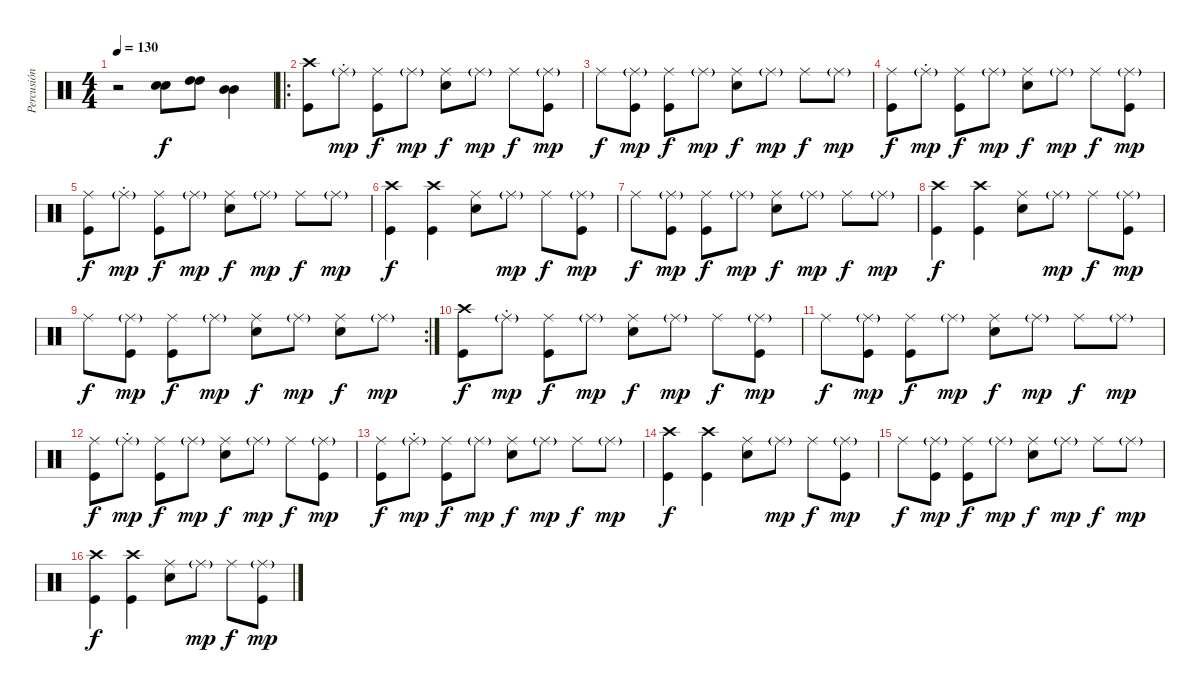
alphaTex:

\track ("Percusión" "Percusión") {instrument percussion}
\staff {score}
\articulation defaults
\ts (4 4)
\tempo 130
\clef neutral
\ks c
r.2{dy f} ("Electric Snare (hit)" "Electric Snare (hit)").8 ("High Tom (hit)" "High Tom (hit)").8 ("Mid Tom (hit)" "Mid Tom (hit)").4 |
\ro
("Crash high (hit)" "Kick (hit)").8 "Ride (middle)"{g st}.8{dy mp} ("Ride (middle)" "Kick (hit)").8{dy f} "Ride (middle)"{g}.8{dy mp} ("Ride (middle)" "Electric Snare (hit)").8{dy f} "Ride (middle)"{g}.8{dy mp} "Ride (middle)".8{dy f} ("Ride (middle)"{g} "Kick (hit)").8{dy mp} |
"Ride (middle)".8{dy f} ("Ride (middle)"{g} "Kick (hit)").8{dy mp} ("Ride (middle)" "Kick (hit)").8{dy f} "Ride (middle)"{g}.8{dy mp} ("Ride (middle)" "Electric Snare (hit)").8{dy f} "Ride (middle)"{g}.8{dy mp} "Ride (middle)".8{dy f} "Ride (middle)"{g}.8{dy mp} |
("Ride (middle)" "Kick (hit)").8{dy f} "Ride (middle)"{g st}.8{dy mp} ("Ride (middle)" "Kick (hit)").8{dy f} "Ride (middle)"{g}.8{dy mp} ("Ride (middle)" "Electric Snare (hit)").8{dy f} "Ride (middle)"{g}.8{dy mp} "Ride (middle)".8{dy f} ("Ride (middle)"{g} "Kick (hit)").8{dy mp} |
("Ride (middle)" "Kick (hit)").8{dy f} "Ride (middle)"{g st}.8{dy mp} ("Ride (middle)" "Kick (hit)").8{dy f} "Ride (middle)"{g}.8{dy mp} ("Ride (middle)" "Electric Snare (hit)").8{dy f} "Ride (middle)"{g}.8{dy mp} "Ride (middle)".8{dy f} "Ride (middle)"{g}.8{dy mp} |
("Crash high (hit)" "Kick (hit)").4{dy f} ("Crash high (hit)" "Kick (hit)").4 ("Ride (middle)" "Electric Snare (hit)").8 "Ride (middle)"{g}.8{dy mp} "Ride (middle)".8{dy f} ("Ride (middle)"{g} "Kick (hit)").8{dy mp} |
"Ride (middle)".8{dy f} ("Ride (middle)"{g} "Kick (hit)").8{dy mp} ("Ride (middle)" "Kick (hit)").8{dy f} "Ride (middle)"{g}.8{dy mp} ("Ride (middle)" "Electric Snare (hit)").8{dy f} "Ride (middle)"{g}.8{dy mp} "Ride (middle)".8{dy f} "Ride (middle)"{g}.8{dy mp} |
("Crash high (hit)" "Kick (hit)").4{dy f} ("Crash high (hit)" "Kick (hit)").4 ("Ride (middle)" "Electric Snare (hit)").8 "Ride (middle)"{g}.8{dy mp} "Ride (middle)".8{dy f} ("Ride (middle)"{g} "Kick (hit)").8{dy mp} |
\rc 2 "Ride (middle)".8{dy f}
("Ride (middle)"{g} "Kick (hit)").8{dy mp} ("Ride (middle)" "Kick (hit)").8{dy f} "Ride (middle)"{g}.8{dy mp} ("Ride (middle)" "Electric Snare (hit)").8{dy f} "Ride (middle)"{g}.8{dy mp} ("Ride (middle)" "Electric Snare (hit)").8{dy f} "Ride (middle)"{g}.8{dy mp} |
("Crash high (hit)" "Kick (hit)").8{dy f} "Ride (middle)"{g st}.8{dy mp} ("Ride (middle)" "Kick (hit)").8{dy f} "Ride (middle)"{g}.8{dy mp} ("Ride (middle)" "Electric Snare (hit)").8{dy f} "Ride (middle)"{g}.8{dy mp} "Ride (middle)".8{dy f} ("Ride (middle)"{g} "Kick (hit)").8{dy mp} |
"Ride (middle)".8{dy f} ("Ride (middle)"{g} "Kick (hit)").8{dy mp} ("Ride (middle)" "Kick (hit)").8{dy f} "Ride (middle)"{g}.8{dy mp} ("Ride (middle)" "Electric Snare (hit)").8{dy f} "Ride (middle)"{g}.8{dy mp} "Ride (middle)".8{dy f} "Ride (middle)"{g}.8{dy mp} |
("Ride (middle)" "Kick (hit)").8{dy f} "Ride (middle)"{g st}.8{dy mp} ("Ride (middle)" "Kick (hit)").8{dy f} "Ride (middle)"{g}.8{dy mp} ("Ride (middle)" "Electric Snare (hit)").8{dy f} "Ride (middle)"{g}.8{dy mp} "Ride (middle)".8{dy f} ("Ride (middle)"{g} "Kick (hit)").8{dy mp} |
("Ride (middle)" "Kick (hit)").8{dy f} "Ride (middle)"{g st}.8{dy mp} ("Ride (middle)" "Kick (hit)").8{dy f} "Ride (middle)"{g}.8{dy mp} ("Ride (middle)" "Electric Snare (hit)").8{dy f} "Ride (middle)"{g}.8{dy mp} "Ride (middle)".8{dy f} "Ride (middle)"{g}.8{dy mp} |
("Crash high (hit)" "Kick (hit)").4{dy f} ("Crash high (hit)" "Kick (hit)").4 ("Ride (middle)" "Electric Snare (hit)").8 "Ride (middle)"{g}.8{dy mp} "Ride (middle)".8{dy f} ("Ride (middle)"{g} "Kick (hit)").8{dy mp} |
"Ride (middle)".8{dy f} ("Ride (middle)"{g} "Kick (hit)").8{dy mp} ("Ride (middle)" "Kick (hit)").8{dy f} "Ride (middle)"{g}.8{dy mp} ("Ride (middle)" "Electric Snare (hit)").8{dy f} "Ride (middle)"{g}.8{dy mp} "Ride (middle)".8{dy f} "Ride (middle)"{g}.8{dy mp} |
("Crash high (hit)" "Kick (hit)").4{dy f} ("Crash high (hit)" "Kick (hit)").4 ("Ride (middle)" "Electric Snare (hit)").8 "Ride (middle)"{g}.8{dy mp} "Ride (middle)".8{dy f} ("Ride (middle)"{g} "Kick (hit)").8{dy mp}
